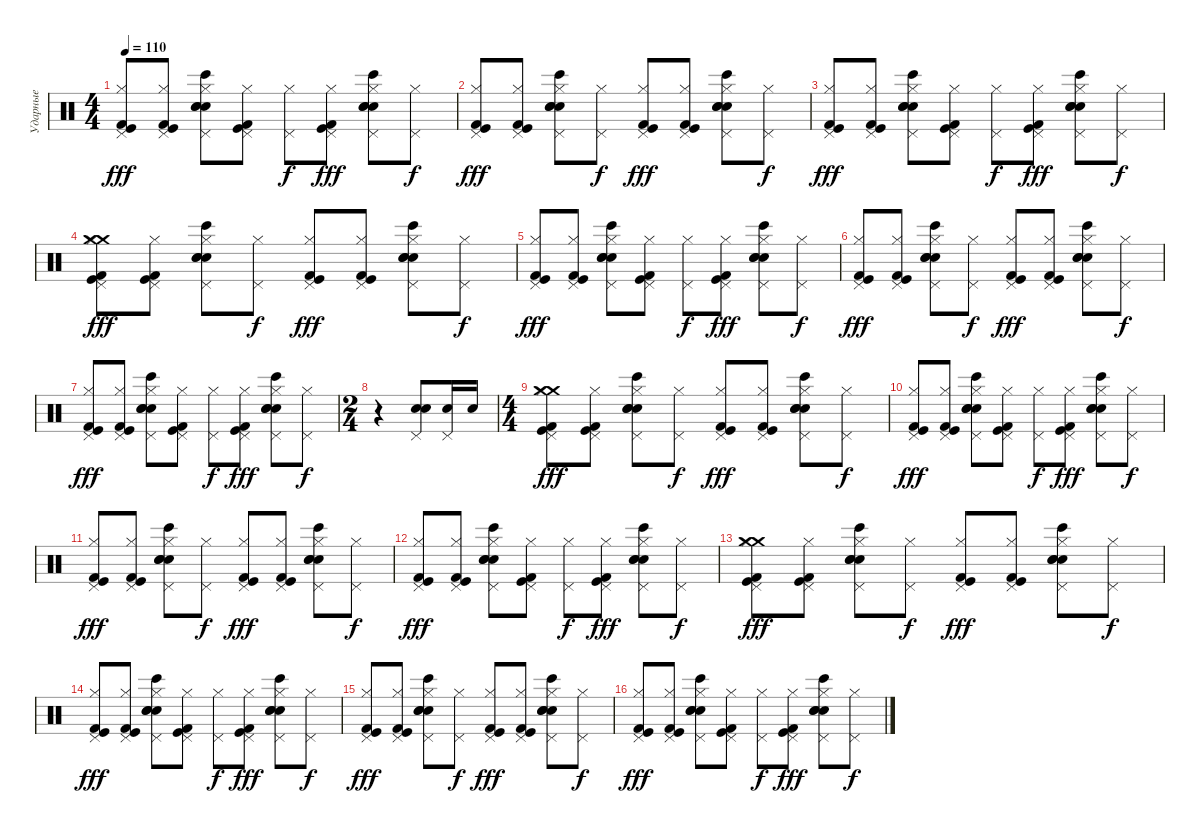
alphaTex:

\track ("Ударные" "Ударные") {instrument percussion}
\staff {score}
\articulation defaults
\ts (4 4)
\tempo 110
\clef neutral
\ks c
("Kick (hit) 2" "Kick (hit)" "Hi-Hat (closed)" "Pedal Hi-Hat (hit)").8{dy fff} ("Kick (hit) 2" "Kick (hit)" "Hi-Hat (closed)" "Pedal Hi-Hat (hit)").8 ("Bongo High (hit)" "Snare (hit) 2" "Snare (hit) 2" "Snare (hit) 2" "Hi-Hat (closed)" "Pedal Hi-Hat (hit)").8 ("Kick (hit) 2" "Kick (hit)" "Hi-Hat (closed)" "Pedal Hi-Hat (hit)").8 ("Hi-Hat (closed)" "Pedal Hi-Hat (hit)").8{dy f} ("Kick (hit) 2" "Kick (hit)" "Hi-Hat (closed)" "Pedal Hi-Hat (hit)").8{dy fff} ("Bongo High (hit)" "Snare (hit) 2" "Snare (hit) 2" "Snare (hit) 2" "Hi-Hat (closed)" "Pedal Hi-Hat (hit)").8 ("Hi-Hat (closed)" "Pedal Hi-Hat (hit)").8{dy f} |
("Kick (hit) 2" "Kick (hit)" "Hi-Hat (closed)" "Pedal Hi-Hat (hit)").8{dy fff} ("Kick (hit) 2" "Kick (hit)" "Hi-Hat (closed)" "Pedal Hi-Hat (hit)").8 ("Bongo High (hit)" "Snare (hit) 2" "Snare (hit) 2" "Snare (hit) 2" "Hi-Hat (closed)" "Pedal Hi-Hat (hit)").8 ("Hi-Hat (closed)" "Pedal Hi-Hat (hit)").8{dy f} ("Kick (hit) 2" "Kick (hit)" "Hi-Hat (closed)" "Pedal Hi-Hat (hit)").8{dy fff} ("Kick (hit) 2" "Kick (hit)" "Hi-Hat (closed)" "Pedal Hi-Hat (hit)").8 ("Bongo High (hit)" "Snare (hit) 2" "Snare (hit) 2" "Snare (hit) 2" "Hi-Hat (closed)" "Pedal Hi-Hat (hit)").8 ("Hi-Hat (closed)" "Pedal Hi-Hat (hit)").8{dy f} |
("Kick (hit) 2" "Kick (hit)" "Hi-Hat (closed)" "Pedal Hi-Hat (hit)").8{dy fff} ("Kick (hit) 2" "Kick (hit)" "Hi-Hat (closed)" "Pedal Hi-Hat (hit)").8 ("Bongo High (hit)" "Snare (hit) 2" "Snare (hit) 2" "Snare (hit) 2" "Hi-Hat (closed)" "Pedal Hi-Hat (hit)").8 ("Kick (hit) 2" "Kick (hit)" "Hi-Hat (closed)" "Pedal Hi-Hat (hit)").8 ("Hi-Hat (closed)" "Pedal Hi-Hat (hit)").8{dy f} ("Kick (hit) 2" "Kick (hit)" "Hi-Hat (closed)" "Pedal Hi-Hat (hit)").8{dy fff} ("Bongo High (hit)" "Snare (hit) 2" "Snare (hit) 2" "Snare (hit) 2" "Hi-Hat (closed)" "Pedal Hi-Hat (hit)").8 ("Hi-Hat (closed)" "Pedal Hi-Hat (hit)").8{dy f} |
("Crash medium (hit)" "Crash medium (hit)" "Kick (hit) 2" "Kick (hit)" "Hi-Hat (closed)" "Pedal Hi-Hat (hit)").8{dy fff} ("Kick (hit) 2" "Kick (hit)" "Hi-Hat (closed)" "Pedal Hi-Hat (hit)").8 ("Bongo High (hit)" "Snare (hit) 2" "Snare (hit) 2" "Snare (hit) 2" "Hi-Hat (closed)" "Pedal Hi-Hat (hit)").8 ("Hi-Hat (closed)" "Pedal Hi-Hat (hit)").8{dy f} ("Kick (hit) 2" "Kick (hit)" "Hi-Hat (closed)" "Pedal Hi-Hat (hit)").8{dy fff} ("Kick (hit) 2" "Kick (hit)" "Hi-Hat (closed)" "Pedal Hi-Hat (hit)").8 ("Bongo High (hit)" "Snare (hit) 2" "Snare (hit) 2" "Snare (hit) 2" "Hi-Hat (closed)" "Pedal Hi-Hat (hit)").8 ("Hi-Hat (closed)" "Pedal Hi-Hat (hit)").8{dy f} |
("Kick (hit) 2" "Kick (hit)" "Hi-Hat (closed)" "Pedal Hi-Hat (hit)").8{dy fff} ("Kick (hit) 2" "Kick (hit)" "Hi-Hat (closed)" "Pedal Hi-Hat (hit)").8 ("Bongo High (hit)" "Snare (hit) 2" "Snare (hit) 2" "Snare (hit) 2" "Hi-Hat (closed)" "Pedal Hi-Hat (hit)").8 ("Kick (hit) 2" "Kick (hit)" "Hi-Hat (closed)" "Pedal Hi-Hat (hit)").8 ("Hi-Hat (closed)" "Pedal Hi-Hat (hit)").8{dy f} ("Kick (hit) 2" "Kick (hit)" "Hi-Hat (closed)" "Pedal Hi-Hat (hit)").8{dy fff} ("Bongo High (hit)" "Snare (hit) 2" "Snare (hit) 2" "Snare (hit) 2" "Hi-Hat (closed)" "Pedal Hi-Hat (hit)").8 ("Hi-Hat (closed)" "Pedal Hi-Hat (hit)").8{dy f} |
("Kick (hit) 2" "Kick (hit)" "Hi-Hat (closed)" "Pedal Hi-Hat (hit)").8{dy fff} ("Kick (hit) 2" "Kick (hit)" "Hi-Hat (closed)" "Pedal Hi-Hat (hit)").8 ("Bongo High (hit)" "Snare (hit) 2" "Snare (hit) 2" "Snare (hit) 2" "Hi-Hat (closed)" "Pedal Hi-Hat (hit)").8 ("Hi-Hat (closed)" "Pedal Hi-Hat (hit)").8{dy f} ("Kick (hit) 2" "Kick (hit)" "Hi-Hat (closed)" "Pedal Hi-Hat (hit)").8{dy fff} ("Kick (hit) 2" "Kick (hit)" "Hi-Hat (closed)" "Pedal Hi-Hat (hit)").8 ("Bongo High (hit)" "Snare (hit) 2" "Snare (hit) 2" "Snare (hit) 2" "Hi-Hat (closed)" "Pedal Hi-Hat (hit)").8 ("Hi-Hat (closed)" "Pedal Hi-Hat (hit)").8{dy f} |
("Kick (hit) 2" "Kick (hit)" "Hi-Hat (closed)" "Pedal Hi-Hat (hit)").8{dy fff} ("Kick (hit) 2" "Kick (hit)" "Hi-Hat (closed)" "Pedal Hi-Hat (hit)").8 ("Bongo High (hit)" "Snare (hit) 2" "Snare (hit) 2" "Snare (hit) 2" "Hi-Hat (closed)" "Pedal Hi-Hat (hit)").8 ("Kick (hit) 2" "Kick (hit)" "Hi-Hat (closed)" "Pedal Hi-Hat (hit)").8 ("Hi-Hat (closed)" "Pedal Hi-Hat (hit)").8{dy f} ("Kick (hit) 2" "Kick (hit)" "Hi-Hat (closed)" "Pedal Hi-Hat (hit)").8{dy fff} ("Bongo High (hit)" "Snare (hit) 2" "Snare (hit) 2" "Snare (hit) 2" "Hi-Hat (closed)" "Pedal Hi-Hat (hit)").8 ("Hi-Hat (closed)" "Pedal Hi-Hat (hit)").8{dy f} |
\ts (2 4)
r.4 ("Hand Clap (hit)" "Snare (hit) 2" "Pedal Hi-Hat (hit)").8 ("Snare (hit) 2" "Pedal Hi-Hat (hit)").16 "Snare (hit) 2".16 |
\ts (4 4)
("Crash medium (hit)" "Crash medium (hit)" "Kick (hit) 2" "Kick (hit)" "Hi-Hat (closed)" "Pedal Hi-Hat (hit)").8{dy fff} ("Kick (hit) 2" "Kick (hit)" "Hi-Hat (closed)" "Pedal Hi-Hat (hit)").8 ("Bongo High (hit)" "Snare (hit) 2" "Snare (hit) 2" "Snare (hit) 2" "Hi-Hat (closed)" "Pedal Hi-Hat (hit)").8 ("Hi-Hat (closed)" "Pedal Hi-Hat (hit)").8{dy f} ("Kick (hit) 2" "Kick (hit)" "Hi-Hat (closed)" "Pedal Hi-Hat (hit)").8{dy fff} ("Kick (hit) 2" "Kick (hit)" "Hi-Hat (closed)" "Pedal Hi-Hat (hit)").8 ("Bongo High (hit)" "Snare (hit) 2" "Snare (hit) 2" "Snare (hit) 2" "Hi-Hat (closed)" "Pedal Hi-Hat (hit)").8 ("Hi-Hat (closed)" "Pedal Hi-Hat (hit)").8{dy f} |
("Kick (hit) 2" "Kick (hit)" "Hi-Hat (closed)" "Pedal Hi-Hat (hit)").8{dy fff} ("Kick (hit) 2" "Kick (hit)" "Hi-Hat (closed)" "Pedal Hi-Hat (hit)").8 ("Bongo High (hit)" "Snare (hit) 2" "Snare (hit) 2" "Snare (hit) 2" "Hi-Hat (closed)" "Pedal Hi-Hat (hit)").8 ("Kick (hit) 2" "Kick (hit)" "Hi-Hat (closed)" "Pedal Hi-Hat (hit)").8 ("Hi-Hat (closed)" "Pedal Hi-Hat (hit)").8{dy f} ("Kick (hit) 2" "Kick (hit)" "Hi-Hat (closed)" "Pedal Hi-Hat (hit)").8{dy fff} ("Bongo High (hit)" "Snare (hit) 2" "Snare (hit) 2" "Snare (hit) 2" "Hi-Hat (closed)" "Pedal Hi-Hat (hit)").8 ("Hi-Hat (closed)" "Pedal Hi-Hat (hit)").8{dy f} |
("Kick (hit) 2" "Kick (hit)" "Hi-Hat (closed)" "Pedal Hi-Hat (hit)").8{dy fff} ("Kick (hit) 2" "Kick (hit)" "Hi-Hat (closed)" "Pedal Hi-Hat (hit)").8 ("Bongo High (hit)" "Snare (hit) 2" "Snare (hit) 2" "Snare (hit) 2" "Hi-Hat (closed)" "Pedal Hi-Hat (hit)").8 ("Hi-Hat (closed)" "Pedal Hi-Hat (hit)").8{dy f} ("Kick (hit) 2" "Kick (hit)" "Hi-Hat (closed)" "Pedal Hi-Hat (hit)").8{dy fff} ("Kick (hit) 2" "Kick (hit)" "Hi-Hat (closed)" "Pedal Hi-Hat (hit)").8 ("Bongo High (hit)" "Snare (hit) 2" "Snare (hit) 2" "Snare (hit) 2" "Hi-Hat (closed)" "Pedal Hi-Hat (hit)").8 ("Hi-Hat (closed)" "Pedal Hi-Hat (hit)").8{dy f} |
("Kick (hit) 2" "Kick (hit)" "Hi-Hat (closed)" "Pedal Hi-Hat (hit)").8{dy fff} ("Kick (hit) 2" "Kick (hit)" "Hi-Hat (closed)" "Pedal Hi-Hat (hit)").8 ("Bongo High (hit)" "Snare (hit) 2" "Snare (hit) 2" "Snare (hit) 2" "Hi-Hat (closed)" "Pedal Hi-Hat (hit)").8 ("Kick (hit) 2" "Kick (hit)" "Hi-Hat (closed)" "Pedal Hi-Hat (hit)").8 ("Hi-Hat (closed)" "Pedal Hi-Hat (hit)").8{dy f} ("Kick (hit) 2" "Kick (hit)" "Hi-Hat (closed)" "Pedal Hi-Hat (hit)").8{dy fff} ("Bongo High (hit)" "Snare (hit) 2" "Snare (hit) 2" "Snare (hit) 2" "Hi-Hat (closed)" "Pedal Hi-Hat (hit)").8 ("Hi-Hat (closed)" "Pedal Hi-Hat (hit)").8{dy f} |
("Crash medium (hit)" "Crash medium (hit)" "Kick (hit) 2" "Kick (hit)" "Hi-Hat (closed)" "Pedal Hi-Hat (hit)").8{dy fff} ("Kick (hit) 2" "Kick (hit)" "Hi-Hat (closed)" "Pedal Hi-Hat (hit)").8 ("Bongo High (hit)" "Snare (hit) 2" "Snare (hit) 2" "Snare (hit) 2" "Hi-Hat (closed)" "Pedal Hi-Hat (hit)").8 ("Hi-Hat (closed)" "Pedal Hi-Hat (hit)").8{dy f} ("Kick (hit) 2" "Kick (hit)" "Hi-Hat (closed)" "Pedal Hi-Hat (hit)").8{dy fff} ("Kick (hit) 2" "Kick (hit)" "Hi-Hat (closed)" "Pedal Hi-Hat (hit)").8 ("Bongo High (hit)" "Snare (hit) 2" "Snare (hit) 2" "Snare (hit) 2" "Hi-Hat (closed)" "Pedal Hi-Hat (hit)").8 ("Hi-Hat (closed)" "Pedal Hi-Hat (hit)").8{dy f} |
("Kick (hit) 2" "Kick (hit)" "Hi-Hat (closed)" "Pedal Hi-Hat (hit)").8{dy fff} ("Kick (hit) 2" "Kick (hit)" "Hi-Hat (closed)" "Pedal Hi-Hat (hit)").8 ("Bongo High (hit)" "Snare (hit) 2" "Snare (hit) 2" "Snare (hit) 2" "Hi-Hat (closed)" "Pedal Hi-Hat (hit)").8 ("Kick (hit) 2" "Kick (hit)" "Hi-Hat (closed)" "Pedal Hi-Hat (hit)").8 ("Hi-Hat (closed)" "Pedal Hi-Hat (hit)").8{dy f} ("Kick (hit) 2" "Kick (hit)" "Hi-Hat (closed)" "Pedal Hi-Hat (hit)").8{dy fff} ("Bongo High (hit)" "Snare (hit) 2" "Snare (hit) 2" "Snare (hit) 2" "Hi-Hat (closed)" "Pedal Hi-Hat (hit)").8 ("Hi-Hat (closed)" "Pedal Hi-Hat (hit)").8{dy f} |
("Kick (hit) 2" "Kick (hit)" "Hi-Hat (closed)" "Pedal Hi-Hat (hit)").8{dy fff} ("Kick (hit) 2" "Kick (hit)" "Hi-Hat (closed)" "Pedal Hi-Hat (hit)").8 ("Bongo High (hit)" "Snare (hit) 2" "Snare (hit) 2" "Snare (hit) 2" "Hi-Hat (closed)" "Pedal Hi-Hat (hit)").8 ("Hi-Hat (closed)" "Pedal Hi-Hat (hit)").8{dy f} ("Kick (hit) 2" "Kick (hit)" "Hi-Hat (closed)" "Pedal Hi-Hat (hit)").8{dy fff} ("Kick (hit) 2" "Kick (hit)" "Hi-Hat (closed)" "Pedal Hi-Hat (hit)").8 ("Bongo High (hit)" "Snare (hit) 2" "Snare (hit) 2" "Snare (hit) 2" "Hi-Hat (closed)" "Pedal Hi-Hat (hit)").8 ("Hi-Hat (closed)" "Pedal Hi-Hat (hit)").8{dy f} |
("Kick (hit) 2" "Kick (hit)" "Hi-Hat (closed)" "Pedal Hi-Hat (hit)").8{dy fff} ("Kick (hit) 2" "Kick (hit)" "Hi-Hat (closed)" "Pedal Hi-Hat (hit)").8 ("Bongo High (hit)" "Snare (hit) 2" "Snare (hit) 2" "Snare (hit) 2" "Hi-Hat (closed)" "Pedal Hi-Hat (hit)").8 ("Kick (hit) 2" "Kick (hit)" "Hi-Hat (closed)" "Pedal Hi-Hat (hit)").8 ("Hi-Hat (closed)" "Pedal Hi-Hat (hit)").8{dy f} ("Kick (hit) 2" "Kick (hit)" "Hi-Hat (closed)" "Pedal Hi-Hat (hit)").8{dy fff} ("Bongo High (hit)" "Snare (hit) 2" "Snare (hit) 2" "Snare (hit) 2" "Hi-Hat (closed)" "Pedal Hi-Hat (hit)").8 ("Hi-Hat (closed)" "Pedal Hi-Hat (hit)").8{dy f}
